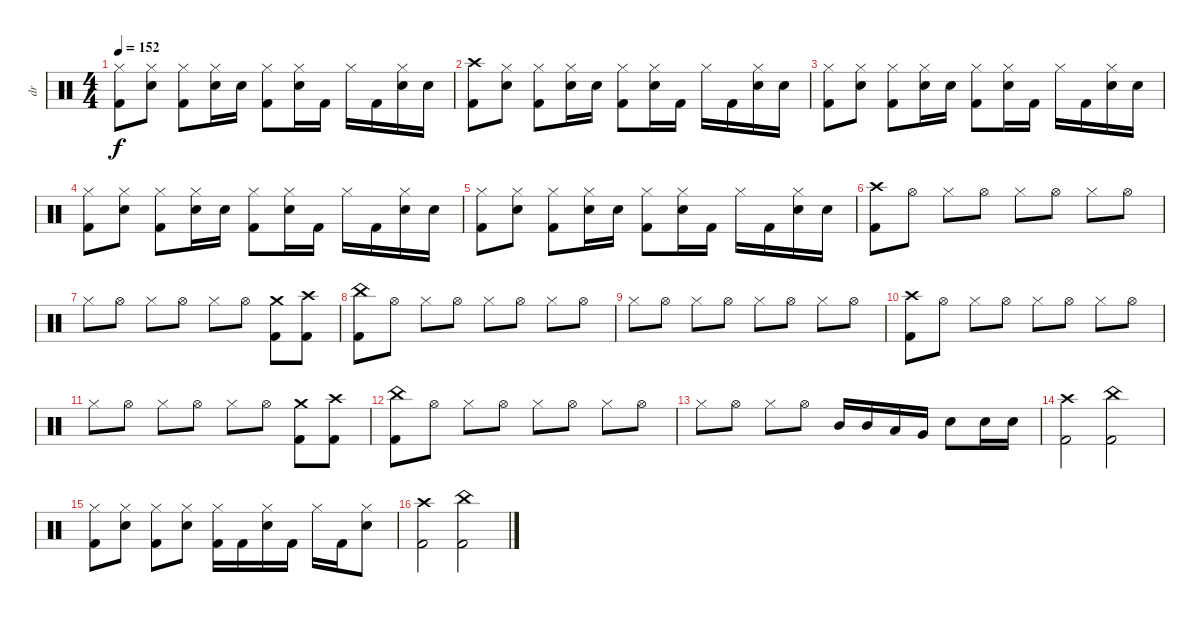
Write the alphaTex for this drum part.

\track ("dr" "dr") {instrument percussion}
\staff {score}
\articulation defaults
\ts (4 4)
\tempo 152
\clef neutral
\ks c
("Hi-Hat (closed)" "Kick (hit) 2").8{dy f} ("Hi-Hat (closed)" "Electric Snare (hit)").8 ("Hi-Hat (closed)" "Kick (hit) 2").8 ("Hi-Hat (closed)" "Electric Snare (hit)").16 "Electric Snare (hit)".16 ("Hi-Hat (closed)" "Kick (hit) 2").8 ("Hi-Hat (closed)" "Electric Snare (hit)").16 "Kick (hit) 2".16 "Hi-Hat (closed)".16 "Kick (hit) 2".16 ("Hi-Hat (closed)" "Electric Snare (hit)").16 "Electric Snare (hit)".16 |
("Crash high (hit)" "Kick (hit) 2").8 ("Hi-Hat (closed)" "Electric Snare (hit)").8 ("Hi-Hat (closed)" "Kick (hit) 2").8 ("Hi-Hat (closed)" "Electric Snare (hit)").16 "Electric Snare (hit)".16 ("Hi-Hat (closed)" "Kick (hit) 2").8 ("Hi-Hat (closed)" "Electric Snare (hit)").16 "Kick (hit) 2".16 "Hi-Hat (closed)".16 "Kick (hit) 2".16 ("Hi-Hat (closed)" "Electric Snare (hit)").16 "Electric Snare (hit)".16 |
("Hi-Hat (closed)" "Kick (hit) 2").8 ("Hi-Hat (closed)" "Electric Snare (hit)").8 ("Hi-Hat (closed)" "Kick (hit) 2").8 ("Hi-Hat (closed)" "Electric Snare (hit)").16 "Electric Snare (hit)".16 ("Hi-Hat (closed)" "Kick (hit) 2").8 ("Hi-Hat (closed)" "Electric Snare (hit)").16 "Kick (hit) 2".16 "Hi-Hat (closed)".16 "Kick (hit) 2".16 ("Hi-Hat (closed)" "Electric Snare (hit)").16 "Electric Snare (hit)".16 |
("Hi-Hat (closed)" "Kick (hit) 2").8 ("Hi-Hat (closed)" "Electric Snare (hit)").8 ("Hi-Hat (closed)" "Kick (hit) 2").8 ("Hi-Hat (closed)" "Electric Snare (hit)").16 "Electric Snare (hit)".16 ("Hi-Hat (closed)" "Kick (hit) 2").8 ("Hi-Hat (closed)" "Electric Snare (hit)").16 "Kick (hit) 2".16 "Hi-Hat (closed)".16 "Kick (hit) 2".16 ("Hi-Hat (closed)" "Electric Snare (hit)").16 "Electric Snare (hit)".16 |
("Hi-Hat (closed)" "Kick (hit) 2").8 ("Hi-Hat (closed)" "Electric Snare (hit)").8 ("Hi-Hat (closed)" "Kick (hit) 2").8 ("Hi-Hat (closed)" "Electric Snare (hit)").16 "Electric Snare (hit)".16 ("Hi-Hat (closed)" "Kick (hit) 2").8 ("Hi-Hat (closed)" "Electric Snare (hit)").16 "Kick (hit) 2".16 "Hi-Hat (closed)".16 "Kick (hit) 2".16 ("Hi-Hat (closed)" "Electric Snare (hit)").16 "Electric Snare (hit)".16 |
("Crash high (hit)" "Kick (hit) 2").8 "Hi-Hat (open)".8 "Hi-Hat (closed)".8 "Hi-Hat (open)".8 "Hi-Hat (closed)".8 "Hi-Hat (open)".8 "Hi-Hat (closed)".8 "Hi-Hat (open)".8 |
"Hi-Hat (closed)".8 "Hi-Hat (open)".8 "Hi-Hat (closed)".8 "Hi-Hat (open)".8 "Hi-Hat (closed)".8 "Hi-Hat (open)".8 ("Crash medium (hit)" "Kick (hit) 2").8 ("Crash high (hit)" "Kick (hit) 2").8 |
("China (hit)" "Kick (hit) 2").8 "Hi-Hat (open)".8 "Hi-Hat (closed)".8 "Hi-Hat (open)".8 "Hi-Hat (closed)".8 "Hi-Hat (open)".8 "Hi-Hat (closed)".8 "Hi-Hat (open)".8 |
"Hi-Hat (closed)".8 "Hi-Hat (open)".8 "Hi-Hat (closed)".8 "Hi-Hat (open)".8 "Hi-Hat (closed)".8 "Hi-Hat (open)".8 "Hi-Hat (closed)".8 "Hi-Hat (open)".8 |
("Crash high (hit)" "Kick (hit) 2").8 "Hi-Hat (open)".8 "Hi-Hat (closed)".8 "Hi-Hat (open)".8 "Hi-Hat (closed)".8 "Hi-Hat (open)".8 "Hi-Hat (closed)".8 "Hi-Hat (open)".8 |
"Hi-Hat (closed)".8 "Hi-Hat (open)".8 "Hi-Hat (closed)".8 "Hi-Hat (open)".8 "Hi-Hat (closed)".8 "Hi-Hat (open)".8 ("Crash medium (hit)" "Kick (hit) 2").8 ("Crash high (hit)" "Kick (hit) 2").8 |
("China (hit)" "Kick (hit) 2").8 "Hi-Hat (open)".8 "Hi-Hat (closed)".8 "Hi-Hat (open)".8 "Hi-Hat (closed)".8 "Hi-Hat (open)".8 "Hi-Hat (closed)".8 "Hi-Hat (open)".8 |
"Hi-Hat (closed)".8 "Hi-Hat (open)".8 "Hi-Hat (closed)".8 "Hi-Hat (open)".8 "Mid Tom (hit)".16 "Mid Tom (hit)".16 "Low Tom (hit)".16 "Very Low Tom (hit)".16 "Electric Snare (hit)".8 "Electric Snare (hit)".16 "Electric Snare (hit)".16 |
("Crash high (hit)" "Kick (hit) 2").2 ("China (hit)" "Kick (hit) 2").2 |
("Hi-Hat (closed)" "Kick (hit) 2").8 ("Hi-Hat (closed)" "Electric Snare (hit)").8 ("Hi-Hat (closed)" "Kick (hit) 2").8 ("Hi-Hat (closed)" "Electric Snare (hit)").8 ("Hi-Hat (closed)" "Kick (hit) 2").16 "Kick (hit) 2".16 ("Hi-Hat (closed)" "Electric Snare (hit)").16 "Kick (hit) 2".16 "Hi-Hat (closed)".16 "Kick (hit) 2".16 ("Hi-Hat (closed)" "Electric Snare (hit)").8 |
("Crash high (hit)" "Kick (hit) 2").2 ("China (hit)" "Kick (hit) 2").2
